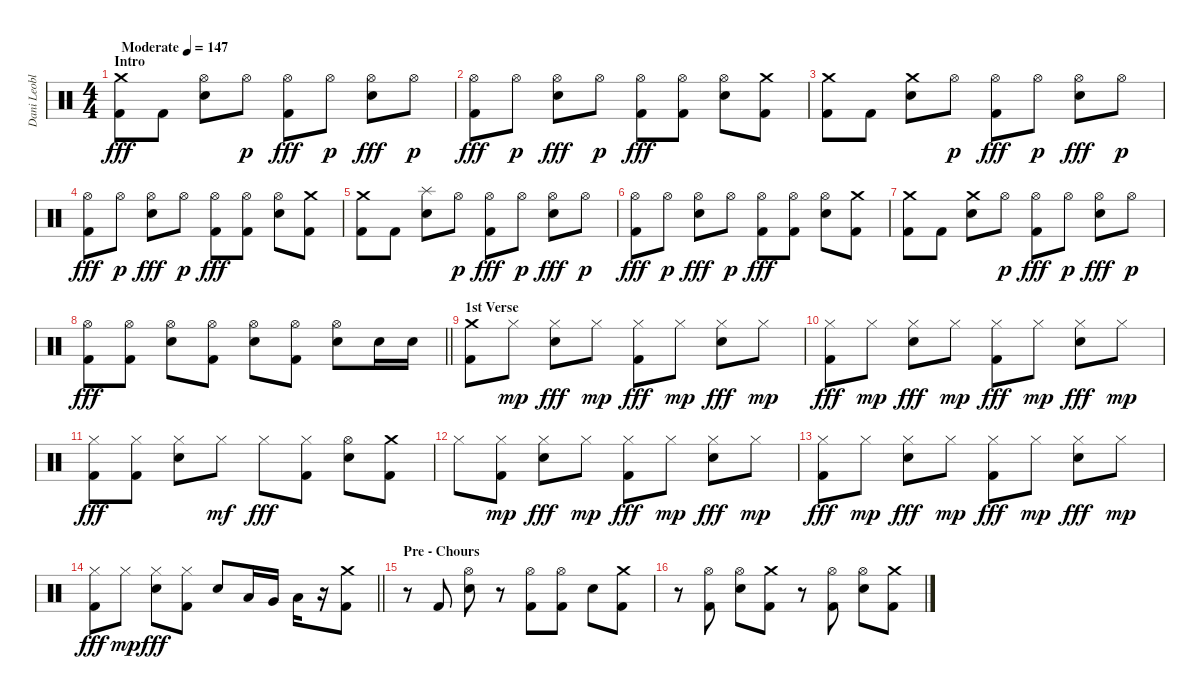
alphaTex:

\track ("Dani Leoble" "Dani Leobl") {instrument percussion}
\staff {score}
\articulation defaults
\ts (4 4)
\section ("" "Intro")
\tempo (147 "Moderate")
\clef neutral
\ks c
("Crash medium (hit)" "Kick (hit) 2").8{dy fff} "Kick (hit) 2".8 ("Hi-Hat (open)" "Electric Snare (hit)").8 "Hi-Hat (open)".8{dy p} ("Hi-Hat (open)" "Kick (hit) 2").8{dy fff} "Hi-Hat (open)".8{dy p} ("Hi-Hat (open)" "Electric Snare (hit)").8{dy fff} "Hi-Hat (open)".8{dy p} |
("Hi-Hat (open)" "Kick (hit) 2").8{dy fff} "Hi-Hat (open)".8{dy p} ("Hi-Hat (open)" "Electric Snare (hit)").8{dy fff} "Hi-Hat (open)".8{dy p} ("Hi-Hat (open)" "Kick (hit) 2").8{dy fff} ("Hi-Hat (open)" "Kick (hit) 2").8 ("Hi-Hat (open)" "Electric Snare (hit)").8 ("Crash medium (hit)" "Kick (hit) 2").8 |
("Crash medium (hit)" "Kick (hit) 2").8 "Kick (hit) 2".8 ("Crash medium (hit)" "Electric Snare (hit)").8 "Hi-Hat (open)".8{dy p} ("Hi-Hat (open)" "Kick (hit) 2").8{dy fff} "Hi-Hat (open)".8{dy p} ("Hi-Hat (open)" "Electric Snare (hit)").8{dy fff} "Hi-Hat (open)".8{dy p} |
("Hi-Hat (open)" "Kick (hit) 2").8{dy fff} "Hi-Hat (open)".8{dy p} ("Hi-Hat (open)" "Electric Snare (hit)").8{dy fff} "Hi-Hat (open)".8{dy p} ("Hi-Hat (open)" "Kick (hit) 2").8{dy fff} ("Hi-Hat (open)" "Kick (hit) 2").8 ("Hi-Hat (open)" "Electric Snare (hit)").8 ("Crash medium (hit)" "Kick (hit) 2").8 |
("Crash medium (hit)" "Kick (hit) 2").8 "Kick (hit) 2".8 ("Splash (hit)" "Electric Snare (hit)").8 "Hi-Hat (open)".8{dy p} ("Hi-Hat (open)" "Kick (hit) 2").8{dy fff} "Hi-Hat (open)".8{dy p} ("Hi-Hat (open)" "Electric Snare (hit)").8{dy fff} "Hi-Hat (open)".8{dy p} |
("Hi-Hat (open)" "Kick (hit) 2").8{dy fff} "Hi-Hat (open)".8{dy p} ("Hi-Hat (open)" "Electric Snare (hit)").8{dy fff} "Hi-Hat (open)".8{dy p} ("Hi-Hat (open)" "Kick (hit) 2").8{dy fff} ("Hi-Hat (open)" "Kick (hit) 2").8 ("Hi-Hat (open)" "Electric Snare (hit)").8 ("Crash medium (hit)" "Kick (hit) 2").8 |
("Crash medium (hit)" "Kick (hit) 2").8 "Kick (hit) 2".8 ("Crash medium (hit)" "Electric Snare (hit)").8 "Hi-Hat (open)".8{dy p} ("Hi-Hat (open)" "Kick (hit) 2").8{dy fff} "Hi-Hat (open)".8{dy p} ("Hi-Hat (open)" "Electric Snare (hit)").8{dy fff} "Hi-Hat (open)".8{dy p} |
\barLineRight lightlight
("Hi-Hat (open)" "Kick (hit) 2").8{dy fff} ("Hi-Hat (open)" "Kick (hit) 2").8 ("Hi-Hat (open)" "Electric Snare (hit)").8 ("Hi-Hat (open)" "Kick (hit) 2").8 ("Hi-Hat (open)" "Electric Snare (hit)").8 ("Hi-Hat (open)" "Kick (hit) 2").8 ("Hi-Hat (open)" "Electric Snare (hit)").8 "Electric Snare (hit)".16 "Electric Snare (hit)".16 |
\section ("" "1st Verse")
("Crash medium (hit)" "Kick (hit) 2").8 "Hi-Hat (closed)".8{dy mp} ("Hi-Hat (closed)" "Electric Snare (hit)").8{dy fff} "Hi-Hat (closed)".8{dy mp} ("Hi-Hat (closed)" "Kick (hit) 2").8{dy fff} "Hi-Hat (closed)".8{dy mp} ("Hi-Hat (closed)" "Electric Snare (hit)").8{dy fff} "Hi-Hat (closed)".8{dy mp} |
("Hi-Hat (closed)" "Kick (hit) 2").8{dy fff} "Hi-Hat (closed)".8{dy mp} ("Hi-Hat (closed)" "Electric Snare (hit)").8{dy fff} "Hi-Hat (closed)".8{dy mp} ("Hi-Hat (closed)" "Kick (hit) 2").8{dy fff} "Hi-Hat (closed)".8{dy mp} ("Hi-Hat (closed)" "Electric Snare (hit)").8{dy fff} "Hi-Hat (closed)".8{dy mp} |
("Hi-Hat (closed)" "Kick (hit) 2").8{dy fff} ("Hi-Hat (closed)" "Kick (hit) 2").8 ("Hi-Hat (closed)" "Electric Snare (hit)").8 "Hi-Hat (closed)".8{dy mf} "Hi-Hat (closed)".8{dy fff} ("Hi-Hat (closed)" "Kick (hit) 2").8 ("Hi-Hat (open)" "Electric Snare (hit)").8 ("Crash medium (hit)" "Kick (hit) 2").8 |
"Hi-Hat (closed)".8 ("Hi-Hat (closed)" "Kick (hit) 2").8{dy mp} ("Hi-Hat (closed)" "Electric Snare (hit)").8{dy fff} "Hi-Hat (closed)".8{dy mp} ("Hi-Hat (closed)" "Kick (hit) 2").8{dy fff} "Hi-Hat (closed)".8{dy mp} ("Hi-Hat (closed)" "Electric Snare (hit)").8{dy fff} "Hi-Hat (closed)".8{dy mp} |
("Hi-Hat (closed)" "Kick (hit) 2").8{dy fff} "Hi-Hat (closed)".8{dy mp} ("Hi-Hat (closed)" "Electric Snare (hit)").8{dy fff} "Hi-Hat (closed)".8{dy mp} ("Hi-Hat (closed)" "Kick (hit) 2").8{dy fff} "Hi-Hat (closed)".8{dy mp} ("Hi-Hat (closed)" "Electric Snare (hit)").8{dy fff} "Hi-Hat (closed)".8{dy mp} |
\barLineRight lightlight
("Hi-Hat (closed)" "Kick (hit) 2").8{dy fff} "Hi-Hat (closed)".8{dy mp} ("Hi-Hat (closed)" "Electric Snare (hit)").8{dy fff} ("Hi-Hat (closed)" "Kick (hit) 2").8 "Electric Snare (hit)".8 "Low Tom (hit)".16 "Very Low Tom (hit)".16 "Low Floor Tom (hit)".16 r.16 ("Crash medium (hit)" "Kick (hit) 2").8 |
\section ("" "Pre - Chours")
r.8 "Kick (hit) 2".8 ("Hi-Hat (open)" "Electric Snare (hit)").8 r.8 ("Hi-Hat (open)" "Kick (hit) 2").8 ("Hi-Hat (open)" "Kick (hit) 2").8 "Electric Snare (hit)".8 ("Crash medium (hit)" "Kick (hit) 2").8 |
r.8 ("Hi-Hat (open)" "Kick (hit) 2").8 ("Hi-Hat (open)" "Electric Snare (hit)").8 ("Crash medium (hit)" "Kick (hit) 2").8 r.8 ("Hi-Hat (open)" "Kick (hit) 2").8 ("Hi-Hat (open)" "Electric Snare (hit)").8 ("Crash medium (hit)" "Kick (hit) 2").8
